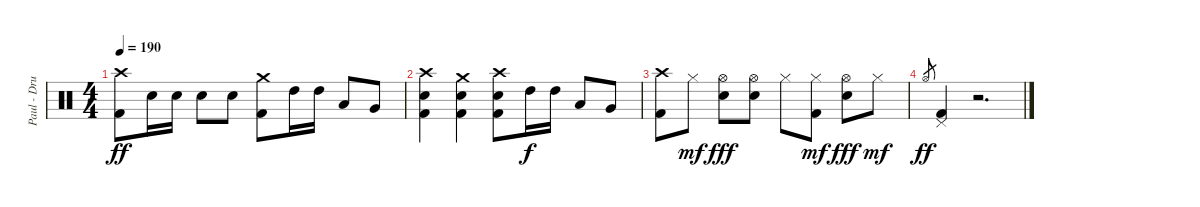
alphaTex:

\track ("Paul - Drums" "Paul - Dru") {instrument percussion}
\staff {score}
\articulation defaults
\ts (4 4)
\tempo 190
\clef neutral
\ks c
("Crash high (hit)" "Kick (hit) 2").8{dy ff} "Electric Snare (hit)".16 "Electric Snare (hit)".16 "Electric Snare (hit)".8 "Electric Snare (hit)".8 ("Crash medium (hit)" "Kick (hit) 2").8 "High Tom (hit)".16 "High Tom (hit)".16 "Low Tom (hit)".8 "Very Low Tom (hit)".8 |
("Crash high (hit)" "Electric Snare (hit)" "Kick (hit) 2").4 ("Crash medium (hit)" "Electric Snare (hit)" "Kick (hit) 2").4 ("Crash high (hit)" "Electric Snare (hit)" "Kick (hit) 2").8 "High Tom (hit)".16{dy f} "High Tom (hit)".16 "Low Tom (hit)".8 "Very Low Tom (hit)".8 |
("Crash high (hit)" "Kick (hit) 2").8 "Hi-Hat (closed)".8{dy mf} ("Hi-Hat (open)" "Electric Snare (hit)").8{dy fff} ("Hi-Hat (open)" "Electric Snare (hit)").8 "Hi-Hat (closed)".8 ("Hi-Hat (closed)" "Kick (hit) 2").8{dy mf} ("Hi-Hat (open)" "Electric Snare (hit)").8{dy fff} "Hi-Hat (closed)".8{dy mf} |
"Hi-Hat (open)".8{gr dy ff} ("Pedal Hi-Hat (hit)" "Kick (hit) 2").4 r.2{d}
